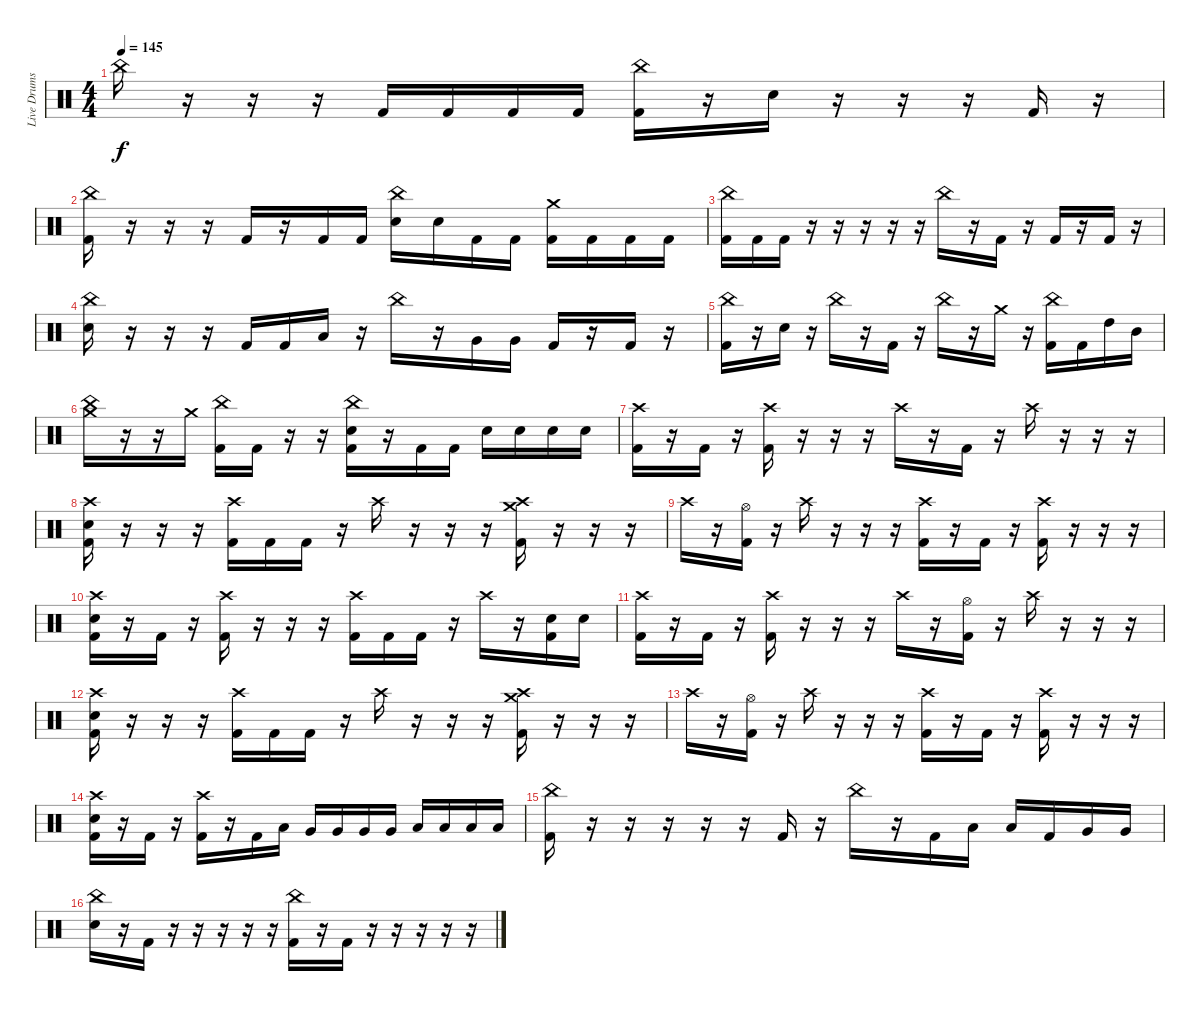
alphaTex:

\track ("Live Drums" "Live Drums") {instrument percussion}
\staff {score}
\articulation defaults
\ts (4 4)
\tempo 145
\clef neutral
\ks c "China (hit)".16{dy f}
r.16 r.16 r.16 "Kick (hit) 2".16 "Kick (hit) 2".16 "Kick (hit) 2".16 "Kick (hit) 2".16 ("China (hit)" "Kick (hit) 2").16 r.16 "Snare (hit) 2".16 r.16 r.16 r.16 "Kick (hit) 2".16 r.16 |
("China (hit)" "Kick (hit) 2").16 r.16 r.16 r.16 "Kick (hit) 2".16 r.16 "Kick (hit) 2".16 "Kick (hit) 2".16 ("China (hit)" "Snare (hit) 2").16 "Snare (hit) 2".16 "Kick (hit) 2".16 "Kick (hit) 2".16 ("Crash medium (hit)" "Kick (hit) 2").16 "Kick (hit) 2".16 "Kick (hit) 2".16 "Kick (hit) 2".16 |
("China (hit)" "Kick (hit) 2").16 "Kick (hit) 2".16 "Kick (hit) 2".16 r.16 r.16 r.16 r.16 r.16 "China (hit)".16 r.16 "Kick (hit) 2".16 r.16 "Kick (hit) 2".16 r.16 "Kick (hit) 2".16 r.16 |
("China (hit)" "Snare (hit) 2").16 r.16 r.16 r.16 "Kick (hit) 2".16 "Kick (hit) 2".16 "Low Tom (hit)".16 r.16 "China (hit)".16 r.16 "Very Low Tom (hit)".16 "Very Low Tom (hit)".16 "Kick (hit) 2".16 r.16 "Kick (hit) 2".16 r.16 |
("China (hit)" "Kick (hit) 2").16 r.16 "Snare (hit) 2".16 r.16 "China (hit)".16 r.16 "Kick (hit) 2".16 r.16 "China (hit)".16 r.16 "Crash medium (hit)".16 r.16 ("China (hit)" "Kick (hit) 2").16 "Kick (hit) 2".16 "High Tom (hit)".16 "Mid Tom (hit)".16 |
("China (hit)" "Crash medium (hit)").16 r.16 r.16 "Crash medium (hit)".16 ("China (hit)" "Kick (hit) 2").16 "Kick (hit) 2".16 r.16 r.16 ("China (hit)" "Snare (hit) 2" "Kick (hit) 2").16 r.16 "Kick (hit) 2".16 "Kick (hit) 2".16 "Snare (hit) 2".16 "Snare (hit) 2".16 "Snare (hit) 2".16 "Snare (hit) 2".16 |
("Crash high (hit)" "Kick (hit) 2").16 r.16 "Kick (hit) 2".16 r.16 ("Crash high (hit)" "Kick (hit) 2").16 r.16 r.16 r.16 "Crash high (hit)".16 r.16 "Kick (hit) 2".16 r.16 "Crash high (hit)".16 r.16 r.16 r.16 |
("Crash high (hit)" "Snare (hit) 2" "Kick (hit) 2").16 r.16 r.16 r.16 ("Crash high (hit)" "Kick (hit) 2").16 "Kick (hit) 2".16 "Kick (hit) 2".16 r.16 "Crash high (hit)".16 r.16 r.16 r.16 ("Crash high (hit)" "Crash medium (hit)" "Kick (hit) 2").16 r.16 r.16 r.16 |
"Crash high (hit)".16 r.16 ("Hi-Hat (open)" "Kick (hit) 2").16 r.16 "Crash high (hit)".16 r.16 r.16 r.16 ("Crash high (hit)" "Kick (hit) 2").16 r.16 "Kick (hit) 2".16 r.16 ("Crash high (hit)" "Kick (hit) 2").16 r.16 r.16 r.16 |
("Crash high (hit)" "Snare (hit) 2" "Kick (hit) 2").16 r.16 "Kick (hit) 2".16 r.16 ("Crash high (hit)" "Kick (hit) 2").16 r.16 r.16 r.16 ("Crash high (hit)" "Kick (hit) 2").16 "Kick (hit) 2".16 "Kick (hit) 2".16 r.16 "Crash high (hit)".16 r.16 ("Snare (hit) 2" "Kick (hit) 2").16 "Snare (hit) 2".16 |
("Crash high (hit)" "Kick (hit) 2").16 r.16 "Kick (hit) 2".16 r.16 ("Crash high (hit)" "Kick (hit) 2").16 r.16 r.16 r.16 "Crash high (hit)".16 r.16 ("Hi-Hat (open)" "Kick (hit) 2").16 r.16 "Crash high (hit)".16 r.16 r.16 r.16 |
("Crash high (hit)" "Snare (hit) 2" "Kick (hit) 2").16 r.16 r.16 r.16 ("Crash high (hit)" "Kick (hit) 2").16 "Kick (hit) 2".16 "Kick (hit) 2".16 r.16 "Crash high (hit)".16 r.16 r.16 r.16 ("Crash high (hit)" "Crash medium (hit)" "Kick (hit) 2").16 r.16 r.16 r.16 |
"Crash high (hit)".16 r.16 ("Hi-Hat (open)" "Kick (hit) 2").16 r.16 "Crash high (hit)".16 r.16 r.16 r.16 ("Crash high (hit)" "Kick (hit) 2").16 r.16 "Kick (hit) 2".16 r.16 ("Crash high (hit)" "Kick (hit) 2").16 r.16 r.16 r.16 |
("Crash high (hit)" "Snare (hit) 2" "Kick (hit) 2").16 r.16 "Kick (hit) 2".16 r.16 ("Crash high (hit)" "Kick (hit) 2").16 r.16 "Kick (hit) 2".16 "Low Tom (hit)".16 "Very Low Tom (hit)".16 "Very Low Tom (hit)".16 "Very Low Tom (hit)".16 "Very Low Tom (hit)".16 "Low Floor Tom (hit)".16 "Low Floor Tom (hit)".16 "Low Floor Tom (hit)".16 "Low Floor Tom (hit)".16 |
("China (hit)" "Kick (hit) 2").16 r.16 r.16 r.16 r.16 r.16 "Kick (hit) 2".16 r.16 "China (hit)".16 r.16 "Kick (hit) 2".16 "Low Tom (hit)".16 "Low Tom (hit)".16 "Kick (hit) 2".16 "Very Low Tom (hit)".16 "Very Low Tom (hit)".16 |
("China (hit)" "Snare (hit) 2").16 r.16 "Kick (hit) 2".16 r.16 r.16 r.16 r.16 r.16 ("China (hit)" "Kick (hit) 2").16 r.16 "Kick (hit) 2".16 r.16 r.16 r.16 r.16 r.16
